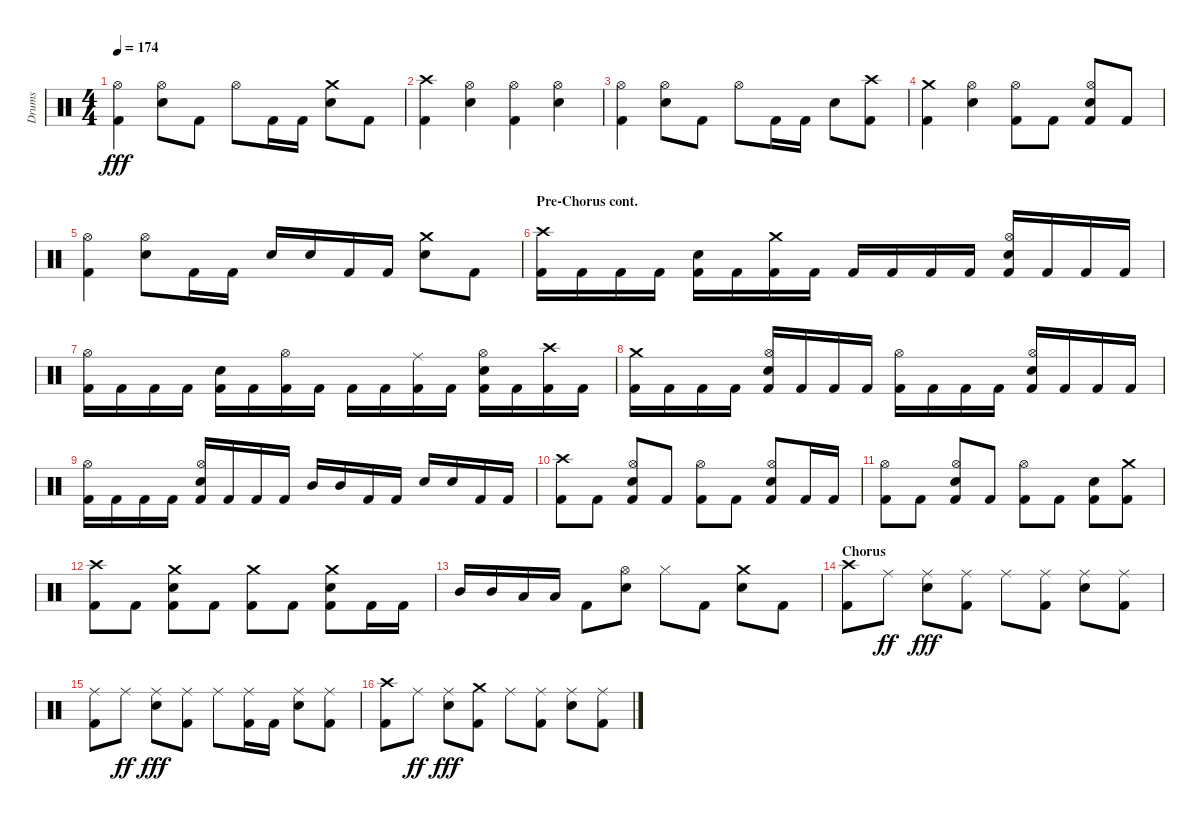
\track ("Drums" "Drums") {instrument percussion}
\staff {score}
\articulation defaults
\ts (4 4)
\tempo 174
\clef neutral
\ks aminor
("Kick (hit) 2" "Hi-Hat (open)").4{dy fff} ("Snare (hit) 2" "Hi-Hat (open)").8 "Kick (hit) 2".8 "Hi-Hat (open)".8 "Kick (hit) 2".16 "Kick (hit) 2".16 ("Snare (hit) 2" "Crash medium (hit)").8 "Kick (hit) 2".8 |
("Kick (hit) 2" "Crash high (hit)").4 ("Snare (hit) 2" "Hi-Hat (open)").4 ("Kick (hit) 2" "Hi-Hat (open)").4 ("Snare (hit) 2" "Hi-Hat (open)").4 |
("Kick (hit) 2" "Hi-Hat (open)").4 ("Snare (hit) 2" "Hi-Hat (open)").8 "Kick (hit) 2".8 "Hi-Hat (open)".8 "Kick (hit) 2".16 "Kick (hit) 2".16 "Snare (hit) 2".8 ("Kick (hit) 2" "Crash high (hit)").8 |
("Kick (hit) 2" "Crash medium (hit)").4 ("Snare (hit) 2" "Hi-Hat (open)").4 ("Kick (hit) 2" "Hi-Hat (open)").8 "Kick (hit) 2".8 ("Snare (hit) 2" "Kick (hit) 2" "Hi-Hat (open)").8 "Kick (hit) 2".8 |
("Kick (hit) 2" "Hi-Hat (open)").4 ("Snare (hit) 2" "Hi-Hat (open)").8 "Kick (hit) 2".16 "Kick (hit) 2".16 "Snare (hit) 2".16 "Snare (hit) 2".16 "Kick (hit) 2".16 "Kick (hit) 2".16 ("Snare (hit) 2" "Crash medium (hit)").8 "Kick (hit) 2".8 |
\section ("" "Pre-Chorus cont.")
("Kick (hit) 2" "Crash high (hit)").16 "Kick (hit) 2".16 "Kick (hit) 2".16 "Kick (hit) 2".16 ("Kick (hit) 2" "Snare (hit) 2").16 "Kick (hit) 2".16 ("Kick (hit) 2" "Crash medium (hit)").16 "Kick (hit) 2".16 "Kick (hit) 2".16 "Kick (hit) 2".16 "Kick (hit) 2".16 "Kick (hit) 2".16 ("Kick (hit) 2" "Snare (hit) 2" "Hi-Hat (open)").16 "Kick (hit) 2".16 "Kick (hit) 2".16 "Kick (hit) 2".16 |
("Kick (hit) 2" "Hi-Hat (open)").16 "Kick (hit) 2".16 "Kick (hit) 2".16 "Kick (hit) 2".16 ("Kick (hit) 2" "Snare (hit) 2").16 "Kick (hit) 2".16 ("Kick (hit) 2" "Hi-Hat (open)").16 "Kick (hit) 2".16 "Kick (hit) 2".16 "Kick (hit) 2".16 ("Kick (hit) 2" "Ride (middle)").16 "Kick (hit) 2".16 ("Kick (hit) 2" "Snare (hit) 2" "Hi-Hat (open)").16 "Kick (hit) 2".16 ("Kick (hit) 2" "Crash high (hit)").16 "Kick (hit) 2".16 |
("Kick (hit) 2" "Crash medium (hit)").16 "Kick (hit) 2".16 "Kick (hit) 2".16 "Kick (hit) 2".16 ("Kick (hit) 2" "Snare (hit) 2" "Hi-Hat (open)").16 "Kick (hit) 2".16 "Kick (hit) 2".16 "Kick (hit) 2".16 ("Kick (hit) 2" "Hi-Hat (open)").16 "Kick (hit) 2".16 "Kick (hit) 2".16 "Kick (hit) 2".16 ("Kick (hit) 2" "Snare (hit) 2" "Hi-Hat (open)").16 "Kick (hit) 2".16 "Kick (hit) 2".16 "Kick (hit) 2".16 |
("Kick (hit) 2" "Hi-Hat (open)").16 "Kick (hit) 2".16 "Kick (hit) 2".16 "Kick (hit) 2".16 ("Kick (hit) 2" "Snare (hit) 2" "Hi-Hat (open)").16 "Kick (hit) 2".16 "Kick (hit) 2".16 "Kick (hit) 2".16 "Mid Tom (hit)".16 "Mid Tom (hit)".16 "Kick (hit) 2".16 "Kick (hit) 2".16 "Snare (hit) 2".16 "Snare (hit) 2".16 "Kick (hit) 2".16 "Kick (hit) 2".16 |
("Kick (hit) 2" "Crash high (hit)").8 "Kick (hit) 2".8 ("Kick (hit) 2" "Snare (hit) 2" "Hi-Hat (open)").8 "Kick (hit) 2".8 ("Kick (hit) 2" "Hi-Hat (open)").8 "Kick (hit) 2".8 ("Kick (hit) 2" "Snare (hit) 2" "Hi-Hat (open)").8 "Kick (hit) 2".16 "Kick (hit) 2".16 |
("Kick (hit) 2" "Hi-Hat (open)").8 "Kick (hit) 2".8 ("Kick (hit) 2" "Snare (hit) 2" "Hi-Hat (open)").8 "Kick (hit) 2".8 ("Kick (hit) 2" "Hi-Hat (open)").8 "Kick (hit) 2".8 ("Kick (hit) 2" "Snare (hit) 2").8 ("Kick (hit) 2" "Crash medium (hit)").8 |
("Kick (hit) 2" "Crash high (hit)").8 "Kick (hit) 2".8 ("Kick (hit) 2" "Snare (hit) 2" "Crash medium (hit)").8 "Kick (hit) 2".8 ("Kick (hit) 2" "Crash medium (hit)").8 "Kick (hit) 2".8 ("Kick (hit) 2" "Snare (hit) 2" "Crash medium (hit)").8 "Kick (hit) 2".16 "Kick (hit) 2".16 |
"Mid Tom (hit)".16 "Mid Tom (hit)".16 "Low Tom (hit)".16 "Low Tom (hit)".16 "Kick (hit) 2".8 ("Snare (hit) 2" "Hi-Hat (open)").8 "Hi-Hat (closed)".8 "Kick (hit) 2".8 ("Snare (hit) 2" "Crash medium (hit)").8 "Kick (hit) 2".8 |
\section ("" "Chorus")
("Kick (hit) 2" "Crash high (hit)").8 "Ride (middle)".8{dy ff} ("Snare (hit) 2" "Ride (middle)").8{dy fff} ("Kick (hit) 2" "Ride (middle)").8 "Ride (middle)".8 ("Kick (hit) 2" "Ride (middle)").8 ("Snare (hit) 2" "Ride (middle)").8 ("Kick (hit) 2" "Ride (middle)").8 |
("Kick (hit) 2" "Ride (middle)").8 "Ride (middle)".8{dy ff} ("Snare (hit) 2" "Ride (middle)").8{dy fff} ("Kick (hit) 2" "Ride (middle)").8 "Ride (middle)".8 ("Kick (hit) 2" "Ride (middle)").16 "Kick (hit) 2".16 ("Snare (hit) 2" "Ride (middle)").8 ("Kick (hit) 2" "Ride (middle)").8 |
("Kick (hit) 2" "Crash high (hit)").8 "Ride (middle)".8{dy ff} ("Snare (hit) 2" "Ride (middle)").8{dy fff} ("Kick (hit) 2" "Crash medium (hit)").8 "Ride (middle)".8 ("Kick (hit) 2" "Ride (middle)").8 ("Snare (hit) 2" "Ride (middle)").8 ("Kick (hit) 2" "Ride (middle)").8
